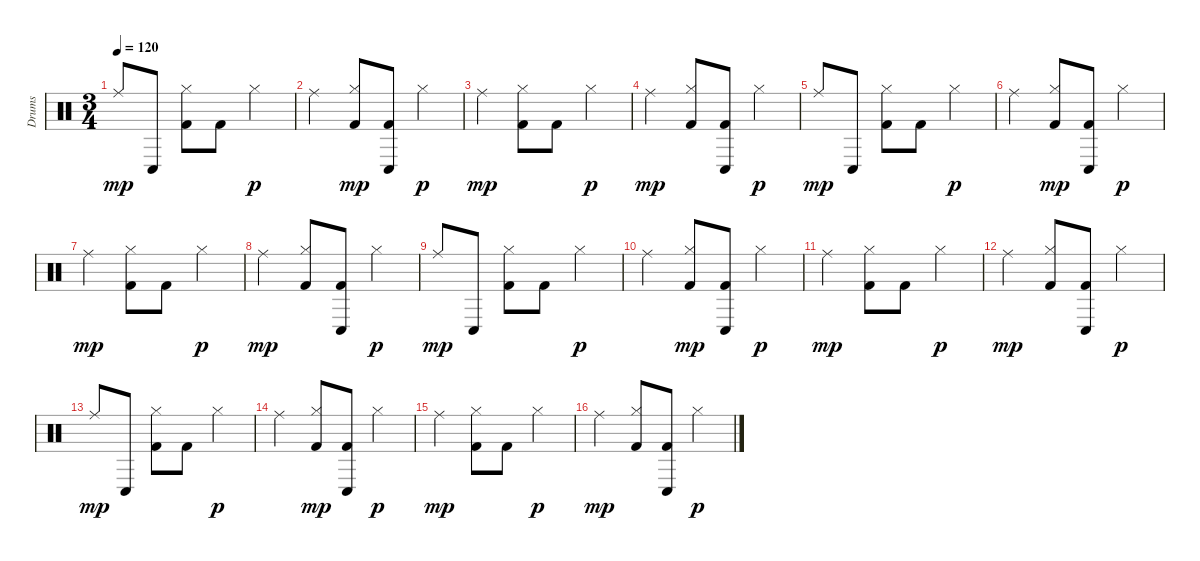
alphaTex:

\track ("Drums" "Drums") {instrument percussion}
\staff {score}
\articulation defaults
\ts (3 4)
\tempo 120
\clef neutral
\ks c "Ride (middle)".8{dy mp} "Conga low (hit)".8
("Hi-Hat (closed)" "Kick (hit) 2").8 "Kick (hit) 2".8 "Hi-Hat (closed)".4{dy p} |
"Ride (middle)".4 ("Hi-Hat (closed)" "Kick (hit) 2").8{dy mp} ("Kick (hit) 2" "Conga low (hit)").8 "Hi-Hat (closed)".4{dy p} |
"Ride (middle)".4{dy mp} ("Hi-Hat (closed)" "Kick (hit) 2").8 "Kick (hit) 2".8 "Hi-Hat (closed)".4{dy p} |
"Ride (middle)".4{dy mp} ("Hi-Hat (closed)" "Kick (hit) 2").8 ("Kick (hit) 2" "Conga low (hit)").8 "Hi-Hat (closed)".4{dy p} |
"Ride (middle)".8{dy mp} "Conga low (hit)".8 ("Hi-Hat (closed)" "Kick (hit) 2").8 "Kick (hit) 2".8 "Hi-Hat (closed)".4{dy p} |
"Ride (middle)".4 ("Hi-Hat (closed)" "Kick (hit) 2").8{dy mp} ("Kick (hit) 2" "Conga low (hit)").8 "Hi-Hat (closed)".4{dy p} |
"Ride (middle)".4{dy mp} ("Hi-Hat (closed)" "Kick (hit) 2").8 "Kick (hit) 2".8 "Hi-Hat (closed)".4{dy p} |
"Ride (middle)".4{dy mp} ("Hi-Hat (closed)" "Kick (hit) 2").8 ("Kick (hit) 2" "Conga low (hit)").8 "Hi-Hat (closed)".4{dy p} |
"Ride (middle)".8{dy mp} "Conga low (hit)".8 ("Hi-Hat (closed)" "Kick (hit) 2").8 "Kick (hit) 2".8 "Hi-Hat (closed)".4{dy p} |
"Ride (middle)".4 ("Hi-Hat (closed)" "Kick (hit) 2").8{dy mp} ("Kick (hit) 2" "Conga low (hit)").8 "Hi-Hat (closed)".4{dy p} |
"Ride (middle)".4{dy mp} ("Hi-Hat (closed)" "Kick (hit) 2").8 "Kick (hit) 2".8 "Hi-Hat (closed)".4{dy p} |
"Ride (middle)".4{dy mp} ("Hi-Hat (closed)" "Kick (hit) 2").8 ("Kick (hit) 2" "Conga low (hit)").8 "Hi-Hat (closed)".4{dy p} |
"Ride (middle)".8{dy mp} "Conga low (hit)".8 ("Hi-Hat (closed)" "Kick (hit) 2").8 "Kick (hit) 2".8 "Hi-Hat (closed)".4{dy p} |
"Ride (middle)".4 ("Hi-Hat (closed)" "Kick (hit) 2").8{dy mp} ("Kick (hit) 2" "Conga low (hit)").8 "Hi-Hat (closed)".4{dy p} |
"Ride (middle)".4{dy mp} ("Hi-Hat (closed)" "Kick (hit) 2").8 "Kick (hit) 2".8 "Hi-Hat (closed)".4{dy p} |
"Ride (middle)".4{dy mp} ("Hi-Hat (closed)" "Kick (hit) 2").8 ("Kick (hit) 2" "Conga low (hit)").8 "Hi-Hat (closed)".4{dy p}
